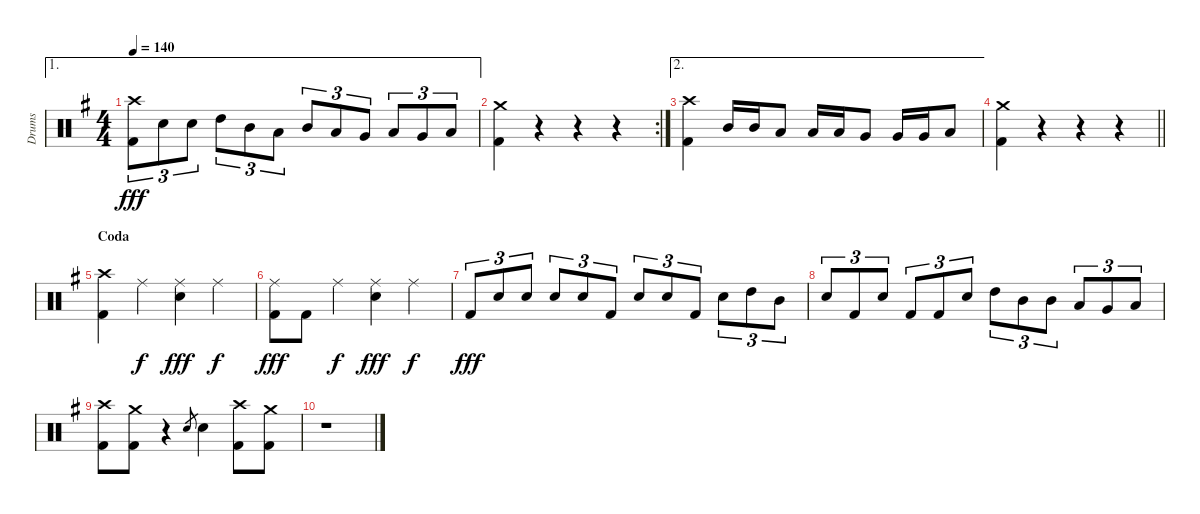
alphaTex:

\track ("Drums" "Drums") {instrument percussion}
\staff {score}
\articulation defaults
\ae 1
\ts (4 4)
\tempo 140
\clef neutral
\ks eminor
("Crash high (hit)" "Kick (hit) 2").8{tu (3 2) dy fff} "Electric Snare (hit)".8{tu (3 2)} "Electric Snare (hit)".8{tu (3 2)} "High Tom (hit)".8{tu (3 2)} "Mid Tom (hit)".8{tu (3 2)} "Low Tom (hit)".8{tu (3 2)} "Mid Tom (hit)".8{tu (3 2)} "Low Tom (hit)".8{tu (3 2)} "Very Low Tom (hit)".8{tu (3 2)} "Low Tom (hit)".8{tu (3 2)} "Very Low Tom (hit)".8{tu (3 2)} "Low Floor Tom (hit)".8{tu (3 2)} |
\rc 2
("Crash medium (hit)" "Kick (hit) 2").4 r.4 r.4 r.4 |
\ae 2
("Crash high (hit)" "Kick (hit) 2").4 "Mid Tom (hit)".16 "Mid Tom (hit)".16 "Low Tom (hit)".8 "Low Tom (hit)".16 "Low Tom (hit)".16 "Very Low Tom (hit)".8 "Very Low Tom (hit)".16 "Very Low Tom (hit)".16 "Low Floor Tom (hit)".8 |
\barLineRight lightlight
("Crash medium (hit)" "Kick (hit) 2").4 r.4 r.4 r.4 |
\section ("" "Coda")
("Crash high (hit)" "Kick (hit) 2").4 "Ride (middle)".4{dy f} ("Electric Snare (hit)" "Ride (middle)").4{dy fff} "Ride (middle)".4{dy f} |
("Ride (middle)" "Kick (hit) 2").8{dy fff} "Kick (hit) 2".8 "Ride (middle)".4{dy f} ("Electric Snare (hit)" "Ride (middle)").4{dy fff} "Ride (middle)".4{dy f} |
"Kick (hit) 2".8{tu (3 2) dy fff} "Electric Snare (hit)".8{tu (3 2)} "Electric Snare (hit)".8{tu (3 2)} "Electric Snare (hit)".8{tu (3 2)} "Electric Snare (hit)".8{tu (3 2)} "Kick (hit) 2".8{tu (3 2)} "Electric Snare (hit)".8{tu (3 2)} "Electric Snare (hit)".8{tu (3 2)} "Kick (hit) 2".8{tu (3 2)} "Electric Snare (hit)".8{tu (3 2)} "High Tom (hit)".8{tu (3 2)} "Mid Tom (hit)".8{tu (3 2)} |
"Electric Snare (hit)".8{tu (3 2)} "Kick (hit) 2".8{tu (3 2)} "Electric Snare (hit)".8{tu (3 2)} "Kick (hit) 2".8{tu (3 2)} "Kick (hit) 2".8{tu (3 2)} "Electric Snare (hit)".8{tu (3 2)} "High Tom (hit)".8{tu (3 2)} "Mid Tom (hit)".8{tu (3 2)} "Mid Tom (hit)".8{tu (3 2)} "Low Tom (hit)".8{tu (3 2)} "Very Low Tom (hit)".8{tu (3 2)} "Low Floor Tom (hit)".8{tu (3 2)} |
("Crash high (hit)" "Kick (hit) 2").8 ("Crash medium (hit)" "Kick (hit) 2").8 r.4 "Electric Snare (hit)".8{gr} "Electric Snare (hit)".4 ("Crash high (hit)" "Kick (hit) 2").8 ("Crash medium (hit)" "Kick (hit) 2").8 |
r.1
